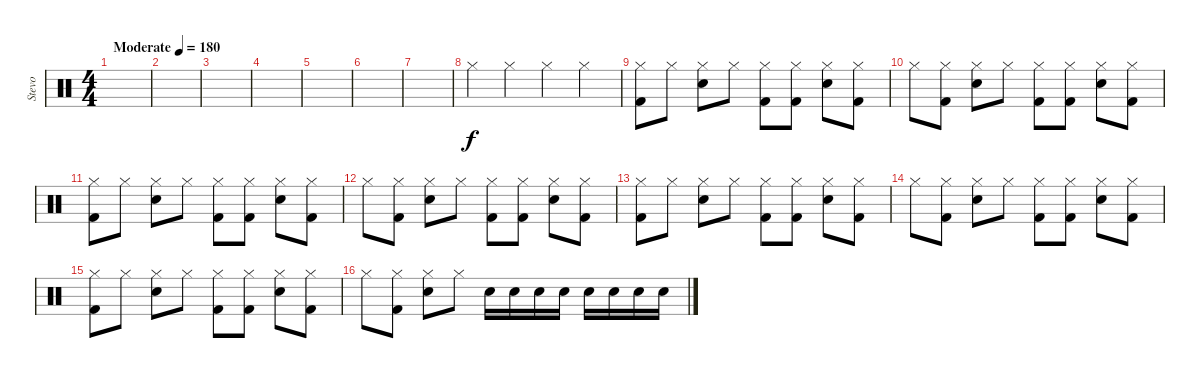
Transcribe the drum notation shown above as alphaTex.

\track ("Stevo" "Stevo") {instrument percussion}
\staff {score}
\articulation defaults
\ts (4 4)
\tempo (180 "Moderate")
\clef neutral
\ks c
|
|
|
|
|
|
|
"Hi-Hat (closed)".4 "Hi-Hat (closed)".4 "Hi-Hat (closed)".4 "Hi-Hat (closed)".4 |
("Hi-Hat (closed)" "Kick (hit) 2").8 "Hi-Hat (closed)".8 ("Hi-Hat (closed)" "Electric Snare (hit)").8 "Hi-Hat (closed)".8 ("Hi-Hat (closed)" "Kick (hit) 2").8 ("Hi-Hat (closed)" "Kick (hit) 2").8 ("Hi-Hat (closed)" "Electric Snare (hit)").8 ("Hi-Hat (closed)" "Kick (hit) 2").8 |
"Hi-Hat (closed)".8 ("Hi-Hat (closed)" "Kick (hit) 2").8 ("Hi-Hat (closed)" "Electric Snare (hit)").8 "Hi-Hat (closed)".8 ("Hi-Hat (closed)" "Kick (hit) 2").8 ("Hi-Hat (closed)" "Kick (hit) 2").8 ("Hi-Hat (closed)" "Electric Snare (hit)").8 ("Hi-Hat (closed)" "Kick (hit) 2").8 |
("Hi-Hat (closed)" "Kick (hit) 2").8 "Hi-Hat (closed)".8 ("Hi-Hat (closed)" "Electric Snare (hit)").8 "Hi-Hat (closed)".8 ("Hi-Hat (closed)" "Kick (hit) 2").8 ("Hi-Hat (closed)" "Kick (hit) 2").8 ("Hi-Hat (closed)" "Electric Snare (hit)").8 ("Hi-Hat (closed)" "Kick (hit) 2").8 |
"Hi-Hat (closed)".8 ("Hi-Hat (closed)" "Kick (hit) 2").8 ("Hi-Hat (closed)" "Electric Snare (hit)").8 "Hi-Hat (closed)".8 ("Hi-Hat (closed)" "Kick (hit) 2").8 ("Hi-Hat (closed)" "Kick (hit) 2").8 ("Hi-Hat (closed)" "Electric Snare (hit)").8 ("Hi-Hat (closed)" "Kick (hit) 2").8 |
("Hi-Hat (closed)" "Kick (hit) 2").8 "Hi-Hat (closed)".8 ("Hi-Hat (closed)" "Electric Snare (hit)").8 "Hi-Hat (closed)".8 ("Hi-Hat (closed)" "Kick (hit) 2").8 ("Hi-Hat (closed)" "Kick (hit) 2").8 ("Hi-Hat (closed)" "Electric Snare (hit)").8 ("Hi-Hat (closed)" "Kick (hit) 2").8 |
"Hi-Hat (closed)".8 ("Hi-Hat (closed)" "Kick (hit) 2").8 ("Hi-Hat (closed)" "Electric Snare (hit)").8 "Hi-Hat (closed)".8 ("Hi-Hat (closed)" "Kick (hit) 2").8 ("Hi-Hat (closed)" "Kick (hit) 2").8 ("Hi-Hat (closed)" "Electric Snare (hit)").8 ("Hi-Hat (closed)" "Kick (hit) 2").8 |
("Hi-Hat (closed)" "Kick (hit) 2").8 "Hi-Hat (closed)".8 ("Hi-Hat (closed)" "Electric Snare (hit)").8 "Hi-Hat (closed)".8 ("Hi-Hat (closed)" "Kick (hit) 2").8 ("Hi-Hat (closed)" "Kick (hit) 2").8 ("Hi-Hat (closed)" "Electric Snare (hit)").8 ("Hi-Hat (closed)" "Kick (hit) 2").8 |
"Hi-Hat (closed)".8 ("Hi-Hat (closed)" "Kick (hit) 2").8 ("Hi-Hat (closed)" "Electric Snare (hit)").8 "Hi-Hat (closed)".8 "Electric Snare (hit)".16 "Electric Snare (hit)".16 "Electric Snare (hit)".16 "Electric Snare (hit)".16 "Electric Snare (hit)".16 "Electric Snare (hit)".16 "Electric Snare (hit)".16 "Electric Snare (hit)".16
